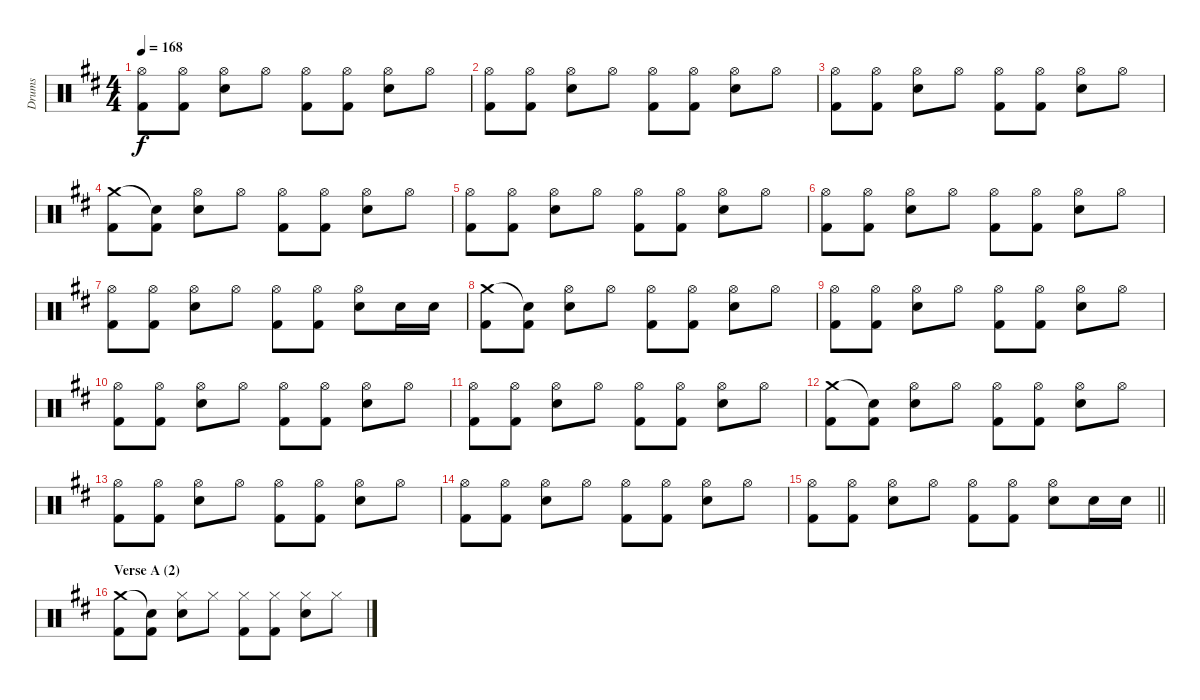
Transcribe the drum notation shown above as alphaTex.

\track ("Drums" "Drums") {instrument percussion}
\staff {score}
\articulation defaults
\ts (4 4)
\tempo 168
\clef neutral
\ks d
("Hi-Hat (open)" "Kick (hit) 2").8{dy f} ("Hi-Hat (open)" "Kick (hit) 2").8 ("Hi-Hat (open)" "Electric Snare (hit)").8 "Hi-Hat (open)".8 ("Hi-Hat (open)" "Kick (hit) 2").8 ("Hi-Hat (open)" "Kick (hit) 2").8 ("Hi-Hat (open)" "Electric Snare (hit)").8 "Hi-Hat (open)".8 |
("Hi-Hat (open)" "Kick (hit) 2").8 ("Hi-Hat (open)" "Kick (hit) 2").8 ("Hi-Hat (open)" "Electric Snare (hit)").8 "Hi-Hat (open)".8 ("Hi-Hat (open)" "Kick (hit) 2").8 ("Hi-Hat (open)" "Kick (hit) 2").8 ("Hi-Hat (open)" "Electric Snare (hit)").8 "Hi-Hat (open)".8 |
("Hi-Hat (open)" "Kick (hit) 2").8 ("Hi-Hat (open)" "Kick (hit) 2").8 ("Hi-Hat (open)" "Electric Snare (hit)").8 "Hi-Hat (open)".8 ("Hi-Hat (open)" "Kick (hit) 2").8 ("Hi-Hat (open)" "Kick (hit) 2").8 ("Hi-Hat (open)" "Electric Snare (hit)").8 "Hi-Hat (open)".8 |
("Crash medium (hit)" "Kick (hit) 2").8 ("Snare (hit)"{t} "Kick (hit) 2").8 ("Hi-Hat (open)" "Electric Snare (hit)").8 "Hi-Hat (open)".8 ("Hi-Hat (open)" "Kick (hit) 2").8 ("Hi-Hat (open)" "Kick (hit) 2").8 ("Hi-Hat (open)" "Electric Snare (hit)").8 "Hi-Hat (open)".8 |
("Hi-Hat (open)" "Kick (hit) 2").8 ("Hi-Hat (open)" "Kick (hit) 2").8 ("Hi-Hat (open)" "Electric Snare (hit)").8 "Hi-Hat (open)".8 ("Hi-Hat (open)" "Kick (hit) 2").8 ("Hi-Hat (open)" "Kick (hit) 2").8 ("Hi-Hat (open)" "Electric Snare (hit)").8 "Hi-Hat (open)".8 |
("Hi-Hat (open)" "Kick (hit) 2").8 ("Hi-Hat (open)" "Kick (hit) 2").8 ("Hi-Hat (open)" "Electric Snare (hit)").8 "Hi-Hat (open)".8 ("Hi-Hat (open)" "Kick (hit) 2").8 ("Hi-Hat (open)" "Kick (hit) 2").8 ("Hi-Hat (open)" "Electric Snare (hit)").8 "Hi-Hat (open)".8 |
("Hi-Hat (open)" "Kick (hit) 2").8 ("Hi-Hat (open)" "Kick (hit) 2").8 ("Hi-Hat (open)" "Electric Snare (hit)").8 "Hi-Hat (open)".8 ("Hi-Hat (open)" "Kick (hit) 2").8 ("Hi-Hat (open)" "Kick (hit) 2").8 ("Hi-Hat (open)" "Electric Snare (hit)").8 "Electric Snare (hit)".16 "Electric Snare (hit)".16 |
("Crash medium (hit)" "Kick (hit) 2").8 ("Snare (hit)"{t} "Kick (hit) 2").8 ("Hi-Hat (open)" "Electric Snare (hit)").8 "Hi-Hat (open)".8 ("Hi-Hat (open)" "Kick (hit) 2").8 ("Hi-Hat (open)" "Kick (hit) 2").8 ("Hi-Hat (open)" "Electric Snare (hit)").8 "Hi-Hat (open)".8 |
("Hi-Hat (open)" "Kick (hit) 2").8 ("Hi-Hat (open)" "Kick (hit) 2").8 ("Hi-Hat (open)" "Electric Snare (hit)").8 "Hi-Hat (open)".8 ("Hi-Hat (open)" "Kick (hit) 2").8 ("Hi-Hat (open)" "Kick (hit) 2").8 ("Hi-Hat (open)" "Electric Snare (hit)").8 "Hi-Hat (open)".8 |
("Hi-Hat (open)" "Kick (hit) 2").8 ("Hi-Hat (open)" "Kick (hit) 2").8 ("Hi-Hat (open)" "Electric Snare (hit)").8 "Hi-Hat (open)".8 ("Hi-Hat (open)" "Kick (hit) 2").8 ("Hi-Hat (open)" "Kick (hit) 2").8 ("Hi-Hat (open)" "Electric Snare (hit)").8 "Hi-Hat (open)".8 |
("Hi-Hat (open)" "Kick (hit) 2").8 ("Hi-Hat (open)" "Kick (hit) 2").8 ("Hi-Hat (open)" "Electric Snare (hit)").8 "Hi-Hat (open)".8 ("Hi-Hat (open)" "Kick (hit) 2").8 ("Hi-Hat (open)" "Kick (hit) 2").8 ("Hi-Hat (open)" "Electric Snare (hit)").8 "Hi-Hat (open)".8 |
("Crash medium (hit)" "Kick (hit) 2").8 ("Snare (hit)"{t} "Kick (hit) 2").8 ("Hi-Hat (open)" "Electric Snare (hit)").8 "Hi-Hat (open)".8 ("Hi-Hat (open)" "Kick (hit) 2").8 ("Hi-Hat (open)" "Kick (hit) 2").8 ("Hi-Hat (open)" "Electric Snare (hit)").8 "Hi-Hat (open)".8 |
("Hi-Hat (open)" "Kick (hit) 2").8 ("Hi-Hat (open)" "Kick (hit) 2").8 ("Hi-Hat (open)" "Electric Snare (hit)").8 "Hi-Hat (open)".8 ("Hi-Hat (open)" "Kick (hit) 2").8 ("Hi-Hat (open)" "Kick (hit) 2").8 ("Hi-Hat (open)" "Electric Snare (hit)").8 "Hi-Hat (open)".8 |
("Hi-Hat (open)" "Kick (hit) 2").8 ("Hi-Hat (open)" "Kick (hit) 2").8 ("Hi-Hat (open)" "Electric Snare (hit)").8 "Hi-Hat (open)".8 ("Hi-Hat (open)" "Kick (hit) 2").8 ("Hi-Hat (open)" "Kick (hit) 2").8 ("Hi-Hat (open)" "Electric Snare (hit)").8 "Hi-Hat (open)".8 |
\barLineRight lightlight
("Hi-Hat (open)" "Kick (hit) 2").8 ("Hi-Hat (open)" "Kick (hit) 2").8 ("Hi-Hat (open)" "Electric Snare (hit)").8 "Hi-Hat (open)".8 ("Hi-Hat (open)" "Kick (hit) 2").8 ("Hi-Hat (open)" "Kick (hit) 2").8 ("Hi-Hat (open)" "Electric Snare (hit)").8 "Electric Snare (hit)".16 "Electric Snare (hit)".16 |
\section ("" "Verse A (2)")
("Crash medium (hit)" "Kick (hit) 2").8 ("Snare (hit)"{t} "Kick (hit) 2").8 ("Hi-Hat (closed)" "Electric Snare (hit)").8 "Hi-Hat (closed)".8 ("Hi-Hat (closed)" "Kick (hit) 2").8 ("Hi-Hat (closed)" "Kick (hit) 2").8 ("Hi-Hat (closed)" "Electric Snare (hit)").8 "Hi-Hat (closed)".8
